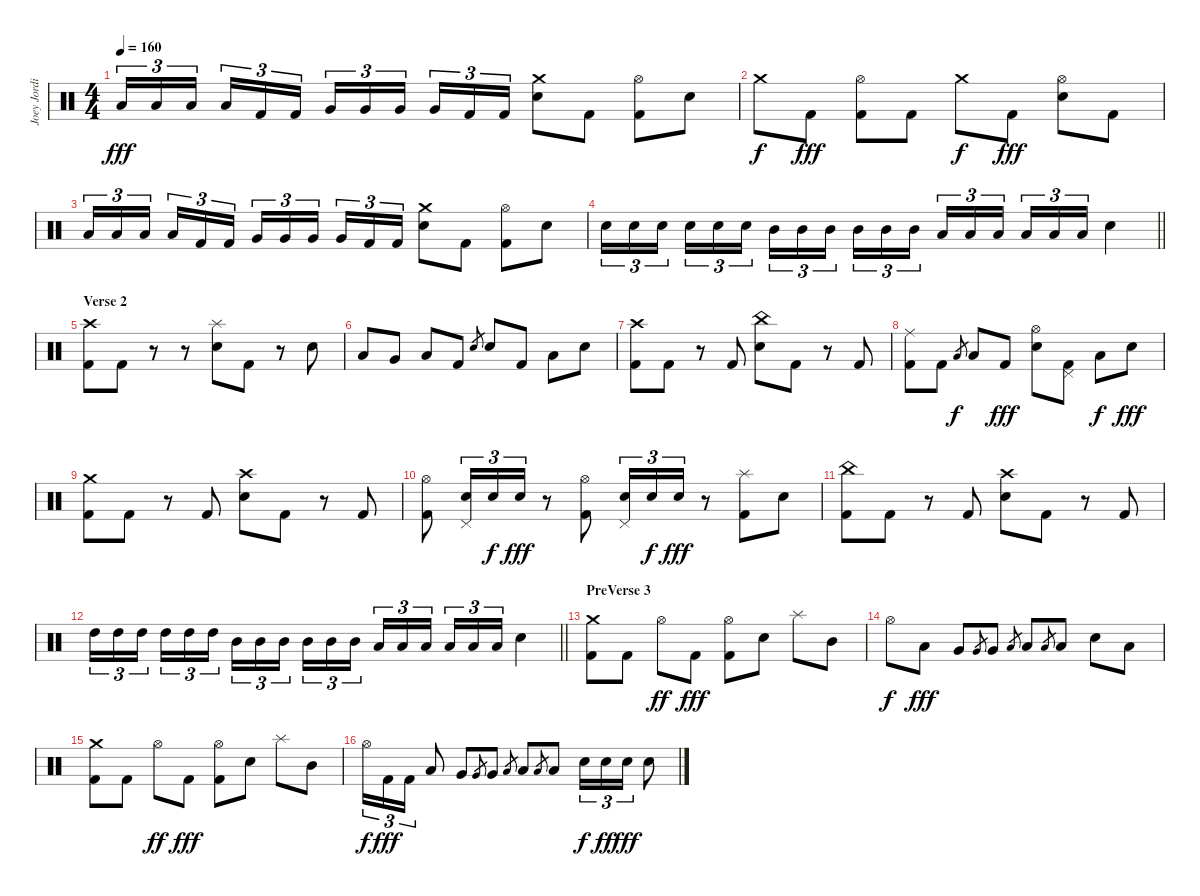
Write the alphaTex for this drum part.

\track ("Joey Jordison" "Joey Jordi") {instrument percussion}
\staff {score}
\articulation defaults
\ts (4 4)
\tempo 160
\clef neutral
\ks c "Low Tom (hit)".16{tu (3 2) dy fff} "Low Tom (hit)".16{tu (3 2)} "Low Tom (hit)".16{tu (3 2) beam splitsecondary} "Low Tom (hit)".16{tu (3 2)} "Kick (hit) 2".16{tu (3 2)} "Kick (hit) 2".16{tu (3 2)} "Very Low Tom (hit)".16{tu (3 2)} "Very Low Tom (hit)".16{tu (3 2)} "Very Low Tom (hit)".16{tu (3 2) beam splitsecondary} "Very Low Tom (hit)".16{tu (3 2)} "Kick (hit) 2".16{tu (3 2)} "Kick (hit) 2".16{tu (3 2)}
("Crash medium (hit)" "Electric Snare (hit)").8 "Kick (hit) 2".8 ("Hi-Hat (open)" "Kick (hit) 2").8 "Electric Snare (hit)".8 |
"Crash medium (hit)".8{dy f} "Kick (hit) 2".8{dy fff} ("Hi-Hat (open)" "Kick (hit) 2").8 "Kick (hit) 2".8 "Crash medium (hit)".8{dy f} "Kick (hit) 2".8{dy fff} ("Hi-Hat (open)" "Electric Snare (hit)").8 "Kick (hit) 2".8 |
"Low Tom (hit)".16{tu (3 2)} "Low Tom (hit)".16{tu (3 2)} "Low Tom (hit)".16{tu (3 2) beam splitsecondary} "Low Tom (hit)".16{tu (3 2)} "Kick (hit) 2".16{tu (3 2)} "Kick (hit) 2".16{tu (3 2)} "Very Low Tom (hit)".16{tu (3 2)} "Very Low Tom (hit)".16{tu (3 2)} "Very Low Tom (hit)".16{tu (3 2) beam splitsecondary} "Very Low Tom (hit)".16{tu (3 2)} "Kick (hit) 2".16{tu (3 2)} "Kick (hit) 2".16{tu (3 2)} ("Crash medium (hit)" "Electric Snare (hit)").8 "Kick (hit) 2".8 ("Hi-Hat (open)" "Kick (hit) 2").8 "Electric Snare (hit)".8 |
\barLineRight lightlight "Electric Snare (hit)".16{tu (3 2)} "Electric Snare (hit)".16{tu (3 2)} "Electric Snare (hit)".16{tu (3 2) beam splitsecondary} "Electric Snare (hit)".16{tu (3 2)} "Electric Snare (hit)".16{tu (3 2)} "Electric Snare (hit)".16{tu (3 2)} "Mid Tom (hit)".16{tu (3 2)} "Mid Tom (hit)".16{tu (3 2)} "Mid Tom (hit)".16{tu (3 2) beam splitsecondary} "Mid Tom (hit)".16{tu (3 2)} "Mid Tom (hit)".16{tu (3 2)} "Mid Tom (hit)".16{tu (3 2)} "Low Tom (hit)".16{tu (3 2)} "Low Tom (hit)".16{tu (3 2)} "Low Tom (hit)".16{tu (3 2) beam splitsecondary} "Low Tom (hit)".16{tu (3 2)} "Low Tom (hit)".16{tu (3 2)} "Low Tom (hit)".16{tu (3 2)} "Electric Snare (hit)".4
|
\section ("" "Verse 2")
("Crash high (hit)" "Kick (hit) 2").8 "Kick (hit) 2".8 r.8 r.8 ("Splash (hit)" "Electric Snare (hit)").8 "Kick (hit) 2".8 r.8 "Electric Snare (hit)".8 |
"Low Tom (hit)".8 "Very Low Tom (hit)".8 "Low Floor Tom (hit)".8 "Kick (hit) 2".8 "Electric Snare (hit)".8{gr} "Electric Snare (hit)".8 "Kick (hit) 2".8 "Low Floor Tom (hit)".8 "Electric Snare (hit)".8 |
("Crash high (hit)" "Kick (hit) 2").8 "Kick (hit) 2".8 r.8 "Kick (hit) 2".8 ("China (hit)" "Electric Snare (hit)").8 "Kick (hit) 2".8 r.8 "Kick (hit) 2".8 |
("Ride (middle)" "Kick (hit) 2").8 "Kick (hit) 2".8 "Low Floor Tom (hit)".8{gr dy f} "Low Floor Tom (hit)".8 "Kick (hit) 2".8{dy fff} ("Hi-Hat (open)" "Electric Snare (hit)").8 ("Pedal Hi-Hat (hit)" "Kick (hit) 2").8 "Low Floor Tom (hit)".8{dy f} "Electric Snare (hit)".8{dy fff} |
("Crash medium (hit)" "Kick (hit) 2").8 "Kick (hit) 2".8 r.8 "Kick (hit) 2".8 ("Crash high (hit)" "Electric Snare (hit)").8 "Kick (hit) 2".8 r.8 "Kick (hit) 2".8 |
("Hi-Hat (open)" "Kick (hit) 2").8 ("Electric Snare (hit)" "Pedal Hi-Hat (hit)").16{tu (3 2)} "Electric Snare (hit)".16{tu (3 2) dy f} "Electric Snare (hit)".16{tu (3 2) dy fff} r.8 ("Hi-Hat (open)" "Kick (hit) 2").8 ("Electric Snare (hit)" "Pedal Hi-Hat (hit)").16{tu (3 2)} "Electric Snare (hit)".16{tu (3 2) dy f} "Electric Snare (hit)".16{tu (3 2) dy fff} r.8 ("Splash (hit)" "Kick (hit) 2").8 "Electric Snare (hit)".8 |
("China (hit)" "Kick (hit) 2").8 "Kick (hit) 2".8 r.8 "Kick (hit) 2".8 ("Crash high (hit)" "Electric Snare (hit)").8 "Kick (hit) 2".8 r.8 "Kick (hit) 2".8 |
\barLineRight lightlight "High Tom (hit)".16{tu (3 2)} "High Tom (hit)".16{tu (3 2)} "High Tom (hit)".16{tu (3 2) beam splitsecondary} "High Tom (hit)".16{tu (3 2)} "High Tom (hit)".16{tu (3 2)} "High Tom (hit)".16{tu (3 2)} "Mid Tom (hit)".16{tu (3 2)} "Mid Tom (hit)".16{tu (3 2)} "Mid Tom (hit)".16{tu (3 2) beam splitsecondary} "Mid Tom (hit)".16{tu (3 2)} "Mid Tom (hit)".16{tu (3 2)} "Mid Tom (hit)".16{tu (3 2)} "Low Tom (hit)".16{tu (3 2)} "Low Tom (hit)".16{tu (3 2)} "Low Tom (hit)".16{tu (3 2) beam splitsecondary} "Low Tom (hit)".16{tu (3 2)} "Low Tom (hit)".16{tu (3 2)} "Low Tom (hit)".16{tu (3 2)} "Electric Snare (hit)".4
|
\section ("" "PreVerse 3")
("Crash medium (hit)" "Kick (hit) 2").8 "Kick (hit) 2".8 "Hi-Hat (open)".8{dy ff} "Kick (hit) 2".8{dy fff} ("Hi-Hat (open)" "Kick (hit) 2").8 "Electric Snare (hit)".8 "Splash (hit)".8 "Mid Tom (hit)".8 |
"Hi-Hat (open)".8{dy f} "Low Tom (hit)".8{dy fff} "Very Low Tom (hit)".8 "Very Low Tom (hit)".8{gr} "Very Low Tom (hit)".8 "Low Floor Tom (hit)".8{gr} "Low Floor Tom (hit)".8 "Low Floor Tom (hit)".8{gr} "Low Floor Tom (hit)".8 "Electric Snare (hit)".8 "Low Floor Tom (hit)".8 |
("Crash medium (hit)" "Kick (hit) 2").8 "Kick (hit) 2".8 "Hi-Hat (open)".8{dy ff} "Kick (hit) 2".8{dy fff} ("Hi-Hat (open)" "Kick (hit) 2").8 "Electric Snare (hit)".8 "Splash (hit)".8 "Mid Tom (hit)".8 |
"Hi-Hat (open)".16{tu (3 2) dy f} "Kick (hit) 2".16{tu (3 2) dy fff} "Kick (hit) 2".16{tu (3 2)} "Low Tom (hit)".8 "Very Low Tom (hit)".8 "Very Low Tom (hit)".8{gr} "Very Low Tom (hit)".8 "Low Floor Tom (hit)".8{gr} "Low Floor Tom (hit)".8 "Low Floor Tom (hit)".8{gr} "Low Floor Tom (hit)".8 "Electric Snare (hit)".16{tu (3 2) dy f} "Electric Snare (hit)".16{tu (3 2) dy ff} "Electric Snare (hit)".16{tu (3 2) dy fff} "Electric Snare (hit)".8
